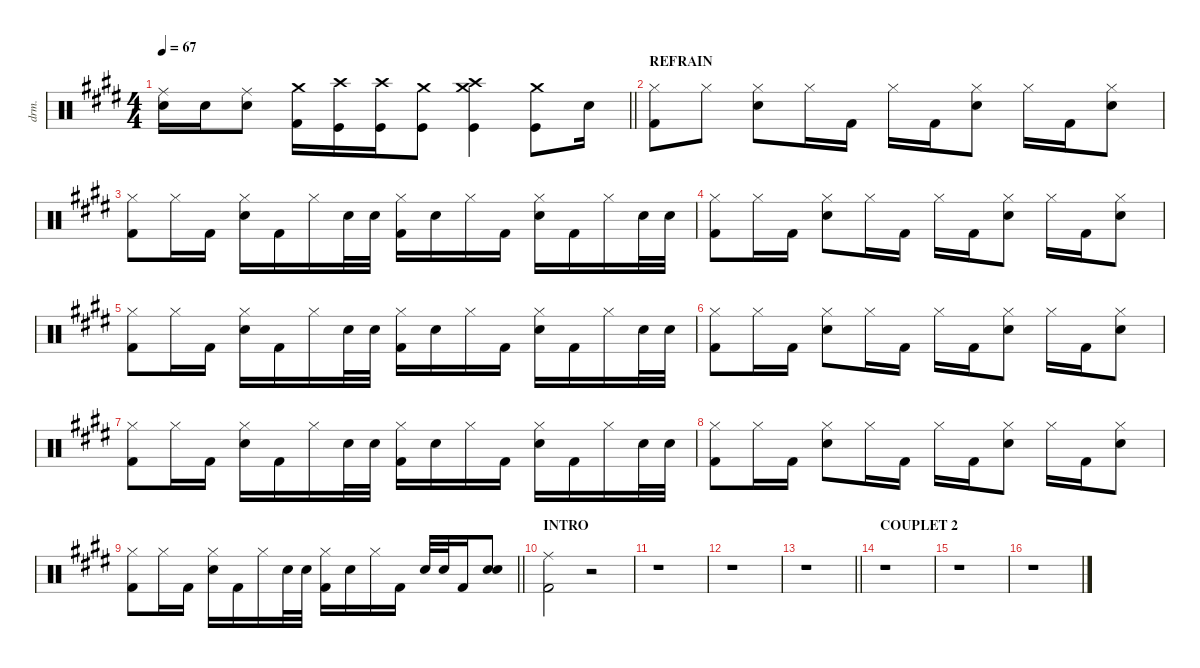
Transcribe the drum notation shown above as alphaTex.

\defaultSystemsLayout 4
\hideDynamics
\bracketExtendMode groupsimilarinstruments
\otherSystemsTrackNameOrientation horizontal
\track ("Drums" "drm.") {defaultSystemsLayout 4 instrument percussion}
\staff {score}
\articulation defaults
\ts (4 4)
\tempo 67
\clef neutral
\barLineRight lightlight
\ks c#minor
("Snare (hit) 2"{acc forcenatural} "Ride (middle)"{acc forcenatural}).16{dy f beam Down} "Snare (hit) 2"{acc forcenatural}.16{beam Down} ("Snare (hit) 2"{acc forcenatural} "Ride (middle)"{acc forcenatural}).8{beam Down} ("Crash medium (hit)"{acc forcenatural} "Kick (hit) 2"{acc forcenatural}).16{beam Down} ("Crash high (hit)"{acc forcenatural} "Kick (hit)"{acc forcenatural}).16{beam Down} ("Crash high (hit)"{acc forcenatural} "Kick (hit)"{acc forcenatural}).16{beam Down} ("Crash medium (hit)"{acc forcenatural} "Kick (hit)"{acc forcenatural}).8{beam Down} ("Crash high (hit)"{acc forcenatural} "Crash medium (hit)"{acc forcenatural} "Kick (hit)"{acc forcenatural}).4{beam Down} ("Crash medium (hit)"{acc forcenatural} "Kick (hit)"{acc forcenatural}).8{beam Down} "Snare (hit) 2"{acc forcenatural}.16{beam Down} |
\section ("" "REFRAIN")
("Kick (hit) 2"{acc forcenatural} "Hi-Hat (closed)"{acc forcenatural}).8{beam Down} "Hi-Hat (closed)"{acc forcenatural}.8{beam Down} ("Snare (hit) 2"{acc forcenatural} "Hi-Hat (closed)"{acc forcenatural}).8{beam Down} "Hi-Hat (closed)"{acc forcenatural}.16{beam Down} "Kick (hit) 2"{acc forcenatural}.16{beam Down} "Hi-Hat (closed)"{acc forcenatural}.16{beam Down} "Kick (hit) 2"{acc forcenatural}.16{beam Down} ("Snare (hit) 2"{acc forcenatural} "Hi-Hat (closed)"{acc forcenatural}).8{beam Down} "Hi-Hat (closed)"{acc forcenatural}.16{beam Down} "Kick (hit) 2"{acc forcenatural}.16{beam Down} ("Snare (hit) 2"{acc forcenatural} "Hi-Hat (closed)"{acc forcenatural}).8{beam Down} |
("Kick (hit) 2"{acc forcenatural} "Hi-Hat (closed)"{acc forcenatural}).8{beam Down} "Hi-Hat (closed)"{acc forcenatural}.16{beam Down} "Kick (hit) 2"{acc forcenatural}.16{beam Down} ("Snare (hit) 2"{acc forcenatural} "Hi-Hat (closed)"{acc forcenatural}).16{beam Down} "Kick (hit) 2"{acc forcenatural}.16{beam Down} "Hi-Hat (closed)"{acc forcenatural}.16{beam Down} "Snare (hit) 2"{acc forcenatural}.32{beam Down} "Snare (hit) 2"{acc forcenatural}.32{beam Down} ("Kick (hit) 2"{acc forcenatural} "Hi-Hat (closed)"{acc forcenatural}).16{beam Down} "Snare (hit) 2"{acc forcenatural}.16{beam Down} "Hi-Hat (closed)"{acc forcenatural}.16{beam Down} "Kick (hit) 2"{acc forcenatural}.16{beam Down} ("Snare (hit) 2"{acc forcenatural} "Hi-Hat (closed)"{acc forcenatural}).16{beam Down} "Kick (hit) 2"{acc forcenatural}.16{beam Down} "Hi-Hat (closed)"{acc forcenatural}.16{beam Down} "Snare (hit) 2"{acc forcenatural}.32{beam Down} "Snare (hit) 2"{acc forcenatural}.32{beam Down} |
("Kick (hit) 2"{acc forcenatural} "Hi-Hat (closed)"{acc forcenatural}).8{beam Down} "Hi-Hat (closed)"{acc forcenatural}.16{beam Down} "Kick (hit) 2"{acc forcenatural}.16{beam Down} ("Snare (hit) 2"{acc forcenatural} "Hi-Hat (closed)"{acc forcenatural}).8{beam Down} "Hi-Hat (closed)"{acc forcenatural}.16{beam Down} "Kick (hit) 2"{acc forcenatural}.16{beam Down} "Hi-Hat (closed)"{acc forcenatural}.16{beam Down} "Kick (hit) 2"{acc forcenatural}.16{beam Down} ("Snare (hit) 2"{acc forcenatural} "Hi-Hat (closed)"{acc forcenatural}).8{beam Down} "Hi-Hat (closed)"{acc forcenatural}.16{beam Down} "Kick (hit) 2"{acc forcenatural}.16{beam Down} ("Snare (hit) 2"{acc forcenatural} "Hi-Hat (closed)"{acc forcenatural}).8{beam Down} |
("Kick (hit) 2"{acc forcenatural} "Hi-Hat (closed)"{acc forcenatural}).8{beam Down} "Hi-Hat (closed)"{acc forcenatural}.16{beam Down} "Kick (hit) 2"{acc forcenatural}.16{beam Down} ("Snare (hit) 2"{acc forcenatural} "Hi-Hat (closed)"{acc forcenatural}).16{beam Down} "Kick (hit) 2"{acc forcenatural}.16{beam Down} "Hi-Hat (closed)"{acc forcenatural}.16{beam Down} "Snare (hit) 2"{acc forcenatural}.32{beam Down} "Snare (hit) 2"{acc forcenatural}.32{beam Down} ("Kick (hit) 2"{acc forcenatural} "Hi-Hat (closed)"{acc forcenatural}).16{beam Down} "Snare (hit) 2"{acc forcenatural}.16{beam Down} "Hi-Hat (closed)"{acc forcenatural}.16{beam Down} "Kick (hit) 2"{acc forcenatural}.16{beam Down} ("Snare (hit) 2"{acc forcenatural} "Hi-Hat (closed)"{acc forcenatural}).16{beam Down} "Kick (hit) 2"{acc forcenatural}.16{beam Down} "Hi-Hat (closed)"{acc forcenatural}.16{beam Down} "Snare (hit) 2"{acc forcenatural}.32{beam Down} "Snare (hit) 2"{acc forcenatural}.32{beam Down} |
("Kick (hit) 2"{acc forcenatural} "Hi-Hat (closed)"{acc forcenatural}).8{beam Down} "Hi-Hat (closed)"{acc forcenatural}.16{beam Down} "Kick (hit) 2"{acc forcenatural}.16{beam Down} ("Snare (hit) 2"{acc forcenatural} "Hi-Hat (closed)"{acc forcenatural}).8{beam Down} "Hi-Hat (closed)"{acc forcenatural}.16{beam Down} "Kick (hit) 2"{acc forcenatural}.16{beam Down} "Hi-Hat (closed)"{acc forcenatural}.16{beam Down} "Kick (hit) 2"{acc forcenatural}.16{beam Down} ("Snare (hit) 2"{acc forcenatural} "Hi-Hat (closed)"{acc forcenatural}).8{beam Down} "Hi-Hat (closed)"{acc forcenatural}.16{beam Down} "Kick (hit) 2"{acc forcenatural}.16{beam Down} ("Snare (hit) 2"{acc forcenatural} "Hi-Hat (closed)"{acc forcenatural}).8{beam Down} |
("Kick (hit) 2"{acc forcenatural} "Hi-Hat (closed)"{acc forcenatural}).8{beam Down} "Hi-Hat (closed)"{acc forcenatural}.16{beam Down} "Kick (hit) 2"{acc forcenatural}.16{beam Down} ("Snare (hit) 2"{acc forcenatural} "Hi-Hat (closed)"{acc forcenatural}).16{beam Down} "Kick (hit) 2"{acc forcenatural}.16{beam Down} "Hi-Hat (closed)"{acc forcenatural}.16{beam Down} "Snare (hit) 2"{acc forcenatural}.32{beam Down} "Snare (hit) 2"{acc forcenatural}.32{beam Down} ("Kick (hit) 2"{acc forcenatural} "Hi-Hat (closed)"{acc forcenatural}).16{beam Down} "Snare (hit) 2"{acc forcenatural}.16{beam Down} "Hi-Hat (closed)"{acc forcenatural}.16{beam Down} "Kick (hit) 2"{acc forcenatural}.16{beam Down} ("Snare (hit) 2"{acc forcenatural} "Hi-Hat (closed)"{acc forcenatural}).16{beam Down} "Kick (hit) 2"{acc forcenatural}.16{beam Down} "Hi-Hat (closed)"{acc forcenatural}.16{beam Down} "Snare (hit) 2"{acc forcenatural}.32{beam Down} "Snare (hit) 2"{acc forcenatural}.32{beam Down} |
("Kick (hit) 2"{acc forcenatural} "Hi-Hat (closed)"{acc forcenatural}).8{beam Down} "Hi-Hat (closed)"{acc forcenatural}.16{beam Down} "Kick (hit) 2"{acc forcenatural}.16{beam Down} ("Snare (hit) 2"{acc forcenatural} "Hi-Hat (closed)"{acc forcenatural}).8{beam Down} "Hi-Hat (closed)"{acc forcenatural}.16{beam Down} "Kick (hit) 2"{acc forcenatural}.16{beam Down} "Hi-Hat (closed)"{acc forcenatural}.16{beam Down} "Kick (hit) 2"{acc forcenatural}.16{beam Down} ("Snare (hit) 2"{acc forcenatural} "Hi-Hat (closed)"{acc forcenatural}).8{beam Down} "Hi-Hat (closed)"{acc forcenatural}.16{beam Down} "Kick (hit) 2"{acc forcenatural}.16{beam Down} ("Snare (hit) 2"{acc forcenatural} "Hi-Hat (closed)"{acc forcenatural}).8{beam Down} |
\barLineRight lightlight
("Kick (hit) 2"{acc forcenatural} "Hi-Hat (closed)"{acc forcenatural}).8{beam Down} "Hi-Hat (closed)"{acc forcenatural}.16{beam Down} "Kick (hit) 2"{acc forcenatural}.16{beam Down} ("Snare (hit) 2"{acc forcenatural} "Hi-Hat (closed)"{acc forcenatural}).16{beam Down} "Kick (hit) 2"{acc forcenatural}.16{beam Down} "Hi-Hat (closed)"{acc forcenatural}.16{beam Down} "Snare (hit) 2"{acc forcenatural}.32{beam Down} "Snare (hit) 2"{acc forcenatural}.32{beam Down} ("Kick (hit) 2"{acc forcenatural} "Hi-Hat (closed)"{acc forcenatural}).16{beam Down} "Snare (hit) 2"{acc forcenatural}.16{beam Down} "Hi-Hat (closed)"{acc forcenatural}.16{beam Down} "Kick (hit) 2"{acc forcenatural}.16{beam Down} "Snare (hit) 2"{acc forcenatural}.32{beam Up} "Snare (hit) 2"{acc forcenatural}.32{beam Up} "Kick (hit) 2"{acc forcenatural}.16{beam Up} ("Snare (hit) 2"{acc forcenatural} "Snare (hit) 2"{acc forcenatural}).8{dy mf beam Up} |
\section ("" "INTRO")
("Ride (middle)"{acc forcenatural} "Kick (hit) 2"{acc forcenatural}).2{beam Down} r.2{beam Down} |
r.1{beam Down} |
r.1{beam Down} |
\barLineRight lightlight
r.1{beam Down} |
\section ("" "COUPLET 2")
r.1{beam Down} |
r.1{beam Down} |
r.1{beam Down}
